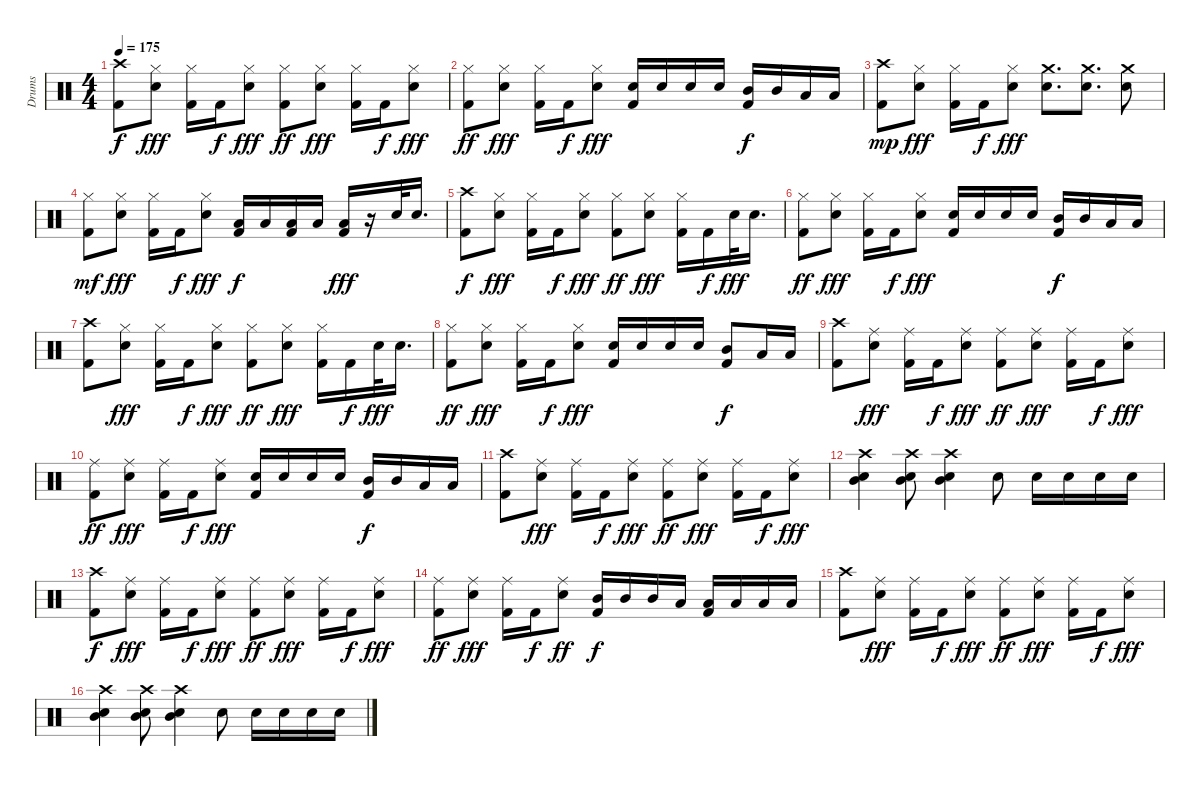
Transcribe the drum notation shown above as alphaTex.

\track ("Drums" "Drums") {instrument percussion}
\staff {score}
\articulation defaults
\ts (4 4)
\tempo 175
\clef neutral
\ks c
("Crash high (hit)" "Kick (hit) 2").8{dy f} ("Hi-Hat (closed)" "Snare (hit) 2").8{dy fff} ("Hi-Hat (closed)" "Kick (hit) 2").16 "Kick (hit) 2".16{dy f} ("Hi-Hat (closed)" "Snare (hit) 2").8{dy fff} ("Hi-Hat (closed)" "Kick (hit) 2").8{dy ff} ("Hi-Hat (closed)" "Snare (hit) 2").8{dy fff} ("Hi-Hat (closed)" "Kick (hit) 2").16 "Kick (hit) 2".16{dy f} ("Hi-Hat (closed)" "Snare (hit) 2").8{dy fff} |
("Hi-Hat (closed)" "Kick (hit) 2").8{dy ff} ("Hi-Hat (closed)" "Snare (hit) 2").8{dy fff} ("Hi-Hat (closed)" "Kick (hit) 2").16 "Kick (hit) 2".16{dy f} ("Hi-Hat (closed)" "Snare (hit) 2").8{dy fff} ("Snare (hit) 2" "Kick (hit) 2").16 "Snare (hit) 2".16 "Snare (hit) 2".16 "Snare (hit) 2".16 ("Mid Tom (hit)" "Kick (hit) 2").16{dy f} "Mid Tom (hit)".16 "Low Tom (hit)".16 "Low Tom (hit)".16 |
("Crash high (hit)" "Kick (hit) 2").8{dy mp} ("Hi-Hat (closed)" "Snare (hit) 2").8{dy fff} ("Hi-Hat (closed)" "Kick (hit) 2").16 "Kick (hit) 2".16{dy f} ("Hi-Hat (closed)" "Snare (hit) 2").8{dy fff} ("Crash medium (hit)" "Snare (hit) 2").8{d} ("Crash medium (hit)" "Snare (hit) 2").8{d} ("Crash medium (hit)" "Snare (hit) 2").8 |
("Hi-Hat (closed)" "Kick (hit) 2").8{dy mf} ("Hi-Hat (closed)" "Snare (hit) 2").8{dy fff} ("Hi-Hat (closed)" "Kick (hit) 2").16 "Kick (hit) 2".16{dy f} ("Hi-Hat (closed)" "Snare (hit) 2").8{dy fff} ("Low Tom (hit)" "Kick (hit) 2").16{dy f} "Low Tom (hit)".16 ("Low Tom (hit)" "Kick (hit) 2").16 "Low Tom (hit)".16 ("Low Tom (hit)" "Kick (hit) 2").16{dy fff} r.16 "Snare (hit) 2".32 "Snare (hit) 2".16{d} |
("Crash high (hit)" "Kick (hit) 2").8{dy f} ("Hi-Hat (closed)" "Snare (hit) 2").8{dy fff} ("Hi-Hat (closed)" "Kick (hit) 2").16 "Kick (hit) 2".16{dy f} ("Hi-Hat (closed)" "Snare (hit) 2").8{dy fff} ("Hi-Hat (closed)" "Kick (hit) 2").8{dy ff} ("Hi-Hat (closed)" "Snare (hit) 2").8{dy fff} ("Hi-Hat (closed)" "Kick (hit) 2").16 "Kick (hit) 2".16{dy f} "Snare (hit) 2".32{dy fff} "Snare (hit) 2".16{d} |
("Hi-Hat (closed)" "Kick (hit) 2").8{dy ff} ("Hi-Hat (closed)" "Snare (hit) 2").8{dy fff} ("Hi-Hat (closed)" "Kick (hit) 2").16 "Kick (hit) 2".16{dy f} ("Hi-Hat (closed)" "Snare (hit) 2").8{dy fff} ("Snare (hit) 2" "Kick (hit) 2").16 "Snare (hit) 2".16 "Snare (hit) 2".16 "Snare (hit) 2".16 ("Mid Tom (hit)" "Kick (hit) 2").16{dy f} "Mid Tom (hit)".16 "Low Tom (hit)".16 "Low Tom (hit)".16 |
("Crash high (hit)" "Kick (hit) 2").8 ("Hi-Hat (closed)" "Snare (hit) 2").8{dy fff} ("Hi-Hat (closed)" "Kick (hit) 2").16 "Kick (hit) 2".16{dy f} ("Hi-Hat (closed)" "Snare (hit) 2").8{dy fff} ("Hi-Hat (closed)" "Kick (hit) 2").8{dy ff} ("Hi-Hat (closed)" "Snare (hit) 2").8{dy fff} ("Hi-Hat (closed)" "Kick (hit) 2").16 "Kick (hit) 2".16{dy f} "Snare (hit) 2".32{dy fff} "Snare (hit) 2".16{d} |
("Hi-Hat (closed)" "Kick (hit) 2").8{dy ff} ("Hi-Hat (closed)" "Snare (hit) 2").8{dy fff} ("Hi-Hat (closed)" "Kick (hit) 2").16 "Kick (hit) 2".16{dy f} ("Hi-Hat (closed)" "Snare (hit) 2").8{dy fff} ("Snare (hit) 2" "Kick (hit) 2").16 "Snare (hit) 2".16 "Snare (hit) 2".16 "Snare (hit) 2".16 ("Mid Tom (hit)" "Kick (hit) 2").8{dy f} "Low Tom (hit)".16 "Low Tom (hit)".16 |
("Crash high (hit)" "Kick (hit) 2").8 ("Ride (middle)" "Snare (hit) 2").8{dy fff} ("Ride (middle)" "Kick (hit) 2").16 "Kick (hit) 2".16{dy f} ("Ride (middle)" "Snare (hit) 2").8{dy fff} ("Ride (middle)" "Kick (hit) 2").8{dy ff} ("Ride (middle)" "Snare (hit) 2").8{dy fff} ("Ride (middle)" "Kick (hit) 2").16 "Kick (hit) 2".16{dy f} ("Ride (middle)" "Snare (hit) 2").8{dy fff} |
("Ride (middle)" "Kick (hit) 2").8{dy ff} ("Ride (middle)" "Snare (hit) 2").8{dy fff} ("Ride (middle)" "Kick (hit) 2").16 "Kick (hit) 2".16{dy f} ("Ride (middle)" "Snare (hit) 2").8{dy fff} ("Snare (hit) 2" "Kick (hit) 2").16 "Snare (hit) 2".16 "Snare (hit) 2".16 "Snare (hit) 2".16 ("Mid Tom (hit)" "Kick (hit) 2").16{dy f} "Mid Tom (hit)".16 "Low Tom (hit)".16 "Low Tom (hit)".16 |
("Crash high (hit)" "Kick (hit) 2").8 ("Ride (middle)" "Snare (hit) 2").8{dy fff} ("Ride (middle)" "Kick (hit) 2").16 "Kick (hit) 2".16{dy f} ("Ride (middle)" "Snare (hit) 2").8{dy fff} ("Ride (middle)" "Kick (hit) 2").8{dy ff} ("Ride (middle)" "Snare (hit) 2").8{dy fff} ("Ride (middle)" "Kick (hit) 2").16 "Kick (hit) 2".16{dy f} ("Ride (middle)" "Snare (hit) 2").8{dy fff} |
("Crash high (hit)" "Snare (hit) 2" "Mid Tom (hit)").4 ("Crash high (hit)" "Snare (hit) 2" "Mid Tom (hit)").8 ("Crash high (hit)" "Snare (hit) 2" "Mid Tom (hit)").4 "Snare (hit) 2".8 "Snare (hit) 2".16 "Snare (hit) 2".16 "Snare (hit) 2".16 "Snare (hit) 2".16 |
("Crash high (hit)" "Kick (hit) 2").8{dy f} ("Ride (middle)" "Snare (hit) 2").8{dy fff} ("Ride (middle)" "Kick (hit) 2").16 "Kick (hit) 2".16{dy f} ("Ride (middle)" "Snare (hit) 2").8{dy fff} ("Ride (middle)" "Kick (hit) 2").8{dy ff} ("Ride (middle)" "Snare (hit) 2").8{dy fff} ("Ride (middle)" "Kick (hit) 2").16 "Kick (hit) 2".16{dy f} ("Ride (middle)" "Snare (hit) 2").8{dy fff} |
("Ride (middle)" "Kick (hit) 2").8{dy ff} ("Ride (middle)" "Snare (hit) 2").8{dy fff} ("Ride (middle)" "Kick (hit) 2").16 "Kick (hit) 2".16{dy f} ("Ride (middle)" "Snare (hit) 2").8{dy ff} ("Mid Tom (hit)" "Kick (hit) 2").16{dy f} "Mid Tom (hit)".16 "Mid Tom (hit)".16 "Low Tom (hit)".16 ("Low Tom (hit)" "Kick (hit) 2").16 "Low Tom (hit)".16 "Low Tom (hit)".16 "Low Tom (hit)".16 |
("Crash high (hit)" "Kick (hit) 2").8 ("Ride (middle)" "Snare (hit) 2").8{dy fff} ("Ride (middle)" "Kick (hit) 2").16 "Kick (hit) 2".16{dy f} ("Ride (middle)" "Snare (hit) 2").8{dy fff} ("Ride (middle)" "Kick (hit) 2").8{dy ff} ("Ride (middle)" "Snare (hit) 2").8{dy fff} ("Ride (middle)" "Kick (hit) 2").16 "Kick (hit) 2".16{dy f} ("Ride (middle)" "Snare (hit) 2").8{dy fff} |
("Crash high (hit)" "Snare (hit) 2" "Mid Tom (hit)").4 ("Crash high (hit)" "Snare (hit) 2" "Mid Tom (hit)").8 ("Crash high (hit)" "Snare (hit) 2" "Mid Tom (hit)").4 "Snare (hit) 2".8 "Snare (hit) 2".16 "Snare (hit) 2".16 "Snare (hit) 2".16 "Snare (hit) 2".16
